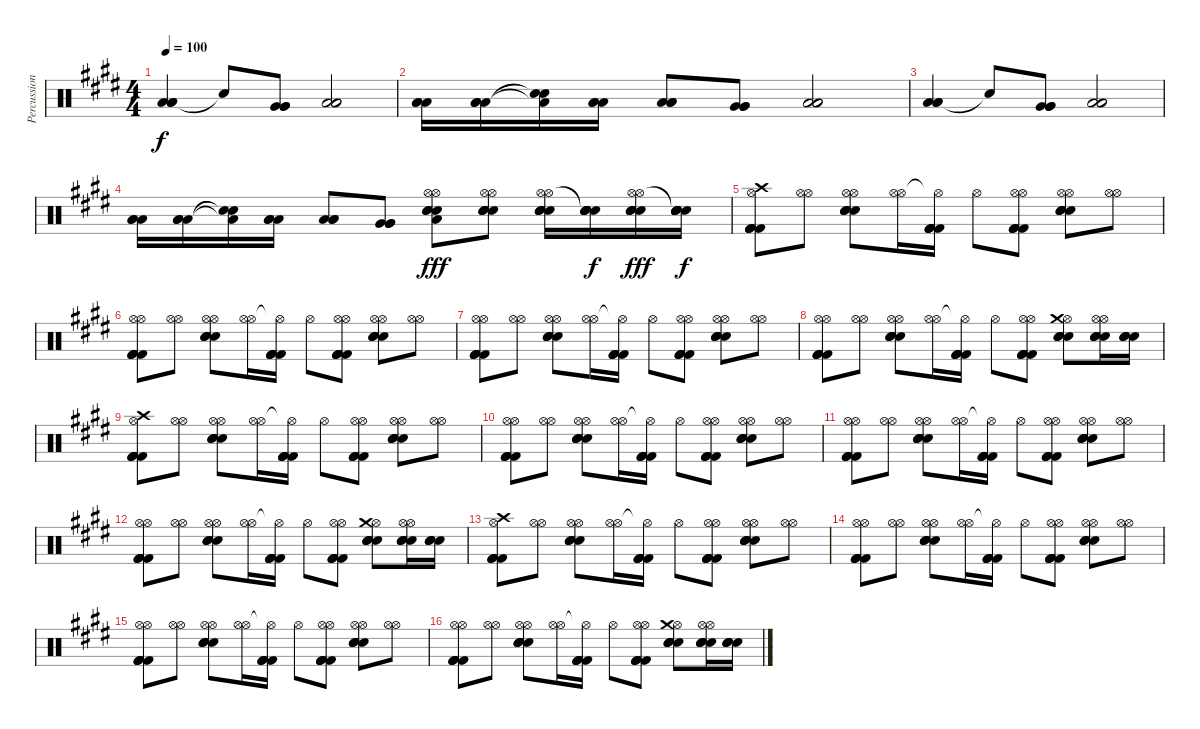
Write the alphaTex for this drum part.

\track ("Percussion" "Percussion") {instrument percussion}
\staff {score}
\articulation defaults
\ts (4 4)
\tempo 100
\clef neutral
\ks e
("Low Floor Tom (hit)" "Low Floor Tom (hit)" "Low Floor Tom (hit)").4{dy f} "Snare (hit)"{t}.8 ("Very Low Tom (hit)" "Very Low Tom (hit)" "Very Low Tom (hit)").8 ("Low Floor Tom (hit)" "Low Floor Tom (hit)" "Low Floor Tom (hit)").2 |
("Low Tom (hit)" "Low Tom (hit)" "Low Tom (hit)").16 ("Low Tom (hit)" "Low Tom (hit)" "Low Tom (hit)").16 ("Low Tom (hit)"{t} "Snare (hit)"{t} "Snare (hit)"{t}).16 ("Low Tom (hit)" "Low Tom (hit)" "Low Tom (hit)").16 ("Low Tom (hit)" "Low Tom (hit)" "Low Tom (hit)").8 ("Very Low Tom (hit)" "Very Low Tom (hit)" "Very Low Tom (hit)").8 ("Low Floor Tom (hit)" "Low Floor Tom (hit)" "Low Floor Tom (hit)").2 |
("Low Floor Tom (hit)" "Low Floor Tom (hit)" "Low Floor Tom (hit)").4 "Snare (hit)"{t}.8 ("Very Low Tom (hit)" "Very Low Tom (hit)" "Very Low Tom (hit)").8 ("Low Floor Tom (hit)" "Low Floor Tom (hit)" "Low Floor Tom (hit)").2 |
("Low Tom (hit)" "Low Tom (hit)" "Low Tom (hit)").16 ("Low Tom (hit)" "Low Tom (hit)" "Low Tom (hit)").16 ("Low Tom (hit)"{t} "Snare (hit)"{t} "Snare (hit)"{t}).16 ("Low Tom (hit)" "Low Tom (hit)" "Low Tom (hit)").16 ("Low Tom (hit)" "Low Tom (hit)" "Low Tom (hit)").8 ("Very Low Tom (hit)" "Very Low Tom (hit)" "Very Low Tom (hit)").8 ("Hi-Hat (open)" "Low Floor Tom (hit)" "Electric Snare (hit)" "Electric Snare (hit)" "Electric Snare (hit)" "Hi-Hat (open)").8{dy fff} ("Hi-Hat (open)" "Electric Snare (hit)" "Electric Snare (hit)" "Electric Snare (hit)" "Electric Snare (hit)" "Hi-Hat (open)").8 ("Hi-Hat (open)" "Electric Snare (hit)" "Electric Snare (hit)" "Electric Snare (hit)" "Electric Snare (hit)" "Hi-Hat (open)").16 ("Snare (hit)"{t} "Electric Snare (hit)" "Electric Snare (hit)" "Electric Snare (hit)" "Electric Snare (hit)" "Snare (hit)"{t}).16{dy f} ("Hi-Hat (open)" "Electric Snare (hit)" "Electric Snare (hit)" "Electric Snare (hit)" "Electric Snare (hit)" "Hi-Hat (open)").16{dy fff} ("Snare (hit)"{t} "Electric Snare (hit)" "Electric Snare (hit)" "Electric Snare (hit)" "Electric Snare (hit)" "Snare (hit)"{t}).16{dy f} |
("Hi-Hat (open)" "Kick (hit) 2" "Kick (hit) 2" "Kick (hit) 2" "Kick (hit) 2" "Crash high (hit)").8 ("Hi-Hat (open)" "Hi-Hat (open)").8 ("Hi-Hat (open)" "Electric Snare (hit)" "Electric Snare (hit)" "Electric Snare (hit)" "Electric Snare (hit)" "Hi-Hat (open)").8 ("Hi-Hat (open)" "Hi-Hat (open)").16 ("Hi-Hat (open)"{t} "Kick (hit) 2" "Kick (hit) 2" "Kick (hit) 2" "Kick (hit) 2").16 "Hi-Hat (open)".8 ("Hi-Hat (open)" "Kick (hit) 2" "Kick (hit) 2" "Kick (hit) 2" "Kick (hit) 2" "Hi-Hat (open)").8 ("Hi-Hat (open)" "Electric Snare (hit)" "Electric Snare (hit)" "Electric Snare (hit)" "Electric Snare (hit)" "Hi-Hat (open)").8 ("Hi-Hat (open)" "Hi-Hat (open)").8 |
("Hi-Hat (open)" "Kick (hit) 2" "Kick (hit) 2" "Kick (hit) 2" "Kick (hit) 2" "Hi-Hat (open)").8 ("Hi-Hat (open)" "Hi-Hat (open)").8 ("Hi-Hat (open)" "Electric Snare (hit)" "Electric Snare (hit)" "Electric Snare (hit)" "Electric Snare (hit)" "Hi-Hat (open)").8 ("Hi-Hat (open)" "Hi-Hat (open)").16 ("Hi-Hat (open)"{t} "Kick (hit) 2" "Kick (hit) 2" "Kick (hit) 2" "Kick (hit) 2").16 "Hi-Hat (open)".8 ("Hi-Hat (open)" "Kick (hit) 2" "Kick (hit) 2" "Kick (hit) 2" "Kick (hit) 2" "Hi-Hat (open)").8 ("Hi-Hat (open)" "Electric Snare (hit)" "Electric Snare (hit)" "Electric Snare (hit)" "Electric Snare (hit)" "Hi-Hat (open)").8 ("Hi-Hat (open)" "Hi-Hat (open)").8 |
("Hi-Hat (open)" "Kick (hit) 2" "Kick (hit) 2" "Kick (hit) 2" "Kick (hit) 2" "Hi-Hat (open)").8 ("Hi-Hat (open)" "Hi-Hat (open)").8 ("Hi-Hat (open)" "Electric Snare (hit)" "Electric Snare (hit)" "Electric Snare (hit)" "Electric Snare (hit)" "Hi-Hat (open)").8 ("Hi-Hat (open)" "Hi-Hat (open)").16 ("Hi-Hat (open)"{t} "Kick (hit) 2" "Kick (hit) 2" "Kick (hit) 2" "Kick (hit) 2").16 "Hi-Hat (open)".8 ("Hi-Hat (open)" "Kick (hit) 2" "Kick (hit) 2" "Kick (hit) 2" "Kick (hit) 2" "Hi-Hat (open)").8 ("Hi-Hat (open)" "Electric Snare (hit)" "Electric Snare (hit)" "Electric Snare (hit)" "Electric Snare (hit)" "Hi-Hat (open)").8 ("Hi-Hat (open)" "Hi-Hat (open)").8 |
("Hi-Hat (open)" "Kick (hit) 2" "Kick (hit) 2" "Kick (hit) 2" "Kick (hit) 2" "Hi-Hat (open)").8 ("Hi-Hat (open)" "Hi-Hat (open)").8 ("Hi-Hat (open)" "Electric Snare (hit)" "Electric Snare (hit)" "Electric Snare (hit)" "Electric Snare (hit)" "Hi-Hat (open)").8 ("Hi-Hat (open)" "Hi-Hat (open)").16 ("Hi-Hat (open)"{t} "Kick (hit) 2" "Kick (hit) 2" "Kick (hit) 2" "Kick (hit) 2").16 "Hi-Hat (open)".8 ("Hi-Hat (open)" "Kick (hit) 2" "Kick (hit) 2" "Kick (hit) 2" "Kick (hit) 2" "Hi-Hat (open)").8 ("Hi-Hat (open)" "Electric Snare (hit)" "Electric Snare (hit)" "Electric Snare (hit)" "Electric Snare (hit)" "Crash medium (hit)").8 ("Hi-Hat (open)" "Electric Snare (hit)" "Electric Snare (hit)" "Electric Snare (hit)" "Electric Snare (hit)" "Hi-Hat (open)").16 ("Electric Snare (hit)" "Electric Snare (hit)" "Electric Snare (hit)" "Electric Snare (hit)").16 |
("Hi-Hat (open)" "Kick (hit) 2" "Kick (hit) 2" "Kick (hit) 2" "Kick (hit) 2" "Crash high (hit)").8 ("Hi-Hat (open)" "Hi-Hat (open)").8 ("Hi-Hat (open)" "Electric Snare (hit)" "Electric Snare (hit)" "Electric Snare (hit)" "Electric Snare (hit)" "Hi-Hat (open)").8 ("Hi-Hat (open)" "Hi-Hat (open)").16 ("Hi-Hat (open)"{t} "Kick (hit) 2" "Kick (hit) 2" "Kick (hit) 2" "Kick (hit) 2").16 "Hi-Hat (open)".8 ("Hi-Hat (open)" "Kick (hit) 2" "Kick (hit) 2" "Kick (hit) 2" "Kick (hit) 2" "Hi-Hat (open)").8 ("Hi-Hat (open)" "Electric Snare (hit)" "Electric Snare (hit)" "Electric Snare (hit)" "Electric Snare (hit)" "Hi-Hat (open)").8 ("Hi-Hat (open)" "Hi-Hat (open)").8 |
("Hi-Hat (open)" "Kick (hit) 2" "Kick (hit) 2" "Kick (hit) 2" "Kick (hit) 2" "Hi-Hat (open)").8 ("Hi-Hat (open)" "Hi-Hat (open)").8 ("Hi-Hat (open)" "Electric Snare (hit)" "Electric Snare (hit)" "Electric Snare (hit)" "Electric Snare (hit)" "Hi-Hat (open)").8 ("Hi-Hat (open)" "Hi-Hat (open)").16 ("Hi-Hat (open)"{t} "Kick (hit) 2" "Kick (hit) 2" "Kick (hit) 2" "Kick (hit) 2").16 "Hi-Hat (open)".8 ("Hi-Hat (open)" "Kick (hit) 2" "Kick (hit) 2" "Kick (hit) 2" "Kick (hit) 2" "Hi-Hat (open)").8 ("Hi-Hat (open)" "Electric Snare (hit)" "Electric Snare (hit)" "Electric Snare (hit)" "Electric Snare (hit)" "Hi-Hat (open)").8 ("Hi-Hat (open)" "Hi-Hat (open)").8 |
("Hi-Hat (open)" "Kick (hit) 2" "Kick (hit) 2" "Kick (hit) 2" "Kick (hit) 2" "Hi-Hat (open)").8 ("Hi-Hat (open)" "Hi-Hat (open)").8 ("Hi-Hat (open)" "Electric Snare (hit)" "Electric Snare (hit)" "Electric Snare (hit)" "Electric Snare (hit)" "Hi-Hat (open)").8 ("Hi-Hat (open)" "Hi-Hat (open)").16 ("Hi-Hat (open)"{t} "Kick (hit) 2" "Kick (hit) 2" "Kick (hit) 2" "Kick (hit) 2").16 "Hi-Hat (open)".8 ("Hi-Hat (open)" "Kick (hit) 2" "Kick (hit) 2" "Kick (hit) 2" "Kick (hit) 2" "Hi-Hat (open)").8 ("Hi-Hat (open)" "Electric Snare (hit)" "Electric Snare (hit)" "Electric Snare (hit)" "Electric Snare (hit)" "Hi-Hat (open)").8 ("Hi-Hat (open)" "Hi-Hat (open)").8 |
("Hi-Hat (open)" "Kick (hit) 2" "Kick (hit) 2" "Kick (hit) 2" "Kick (hit) 2" "Hi-Hat (open)").8 ("Hi-Hat (open)" "Hi-Hat (open)").8 ("Hi-Hat (open)" "Electric Snare (hit)" "Electric Snare (hit)" "Electric Snare (hit)" "Electric Snare (hit)" "Hi-Hat (open)").8 ("Hi-Hat (open)" "Hi-Hat (open)").16 ("Hi-Hat (open)"{t} "Kick (hit) 2" "Kick (hit) 2" "Kick (hit) 2" "Kick (hit) 2").16 "Hi-Hat (open)".8 ("Hi-Hat (open)" "Kick (hit) 2" "Kick (hit) 2" "Kick (hit) 2" "Kick (hit) 2" "Hi-Hat (open)").8 ("Hi-Hat (open)" "Electric Snare (hit)" "Electric Snare (hit)" "Electric Snare (hit)" "Electric Snare (hit)" "Crash medium (hit)").8 ("Hi-Hat (open)" "Electric Snare (hit)" "Electric Snare (hit)" "Electric Snare (hit)" "Electric Snare (hit)" "Hi-Hat (open)").16 ("Electric Snare (hit)" "Electric Snare (hit)" "Electric Snare (hit)" "Electric Snare (hit)").16 |
("Hi-Hat (open)" "Kick (hit) 2" "Kick (hit) 2" "Kick (hit) 2" "Kick (hit) 2" "Crash high (hit)").8 ("Hi-Hat (open)" "Hi-Hat (open)").8 ("Hi-Hat (open)" "Electric Snare (hit)" "Electric Snare (hit)" "Electric Snare (hit)" "Electric Snare (hit)" "Hi-Hat (open)").8 ("Hi-Hat (open)" "Hi-Hat (open)").16 ("Hi-Hat (open)"{t} "Kick (hit) 2" "Kick (hit) 2" "Kick (hit) 2" "Kick (hit) 2").16 "Hi-Hat (open)".8 ("Hi-Hat (open)" "Kick (hit) 2" "Kick (hit) 2" "Kick (hit) 2" "Kick (hit) 2" "Hi-Hat (open)").8 ("Hi-Hat (open)" "Electric Snare (hit)" "Electric Snare (hit)" "Electric Snare (hit)" "Electric Snare (hit)" "Hi-Hat (open)").8 ("Hi-Hat (open)" "Hi-Hat (open)").8 |
("Hi-Hat (open)" "Kick (hit) 2" "Kick (hit) 2" "Kick (hit) 2" "Kick (hit) 2" "Hi-Hat (open)").8 ("Hi-Hat (open)" "Hi-Hat (open)").8 ("Hi-Hat (open)" "Electric Snare (hit)" "Electric Snare (hit)" "Electric Snare (hit)" "Electric Snare (hit)" "Hi-Hat (open)").8 ("Hi-Hat (open)" "Hi-Hat (open)").16 ("Hi-Hat (open)"{t} "Kick (hit) 2" "Kick (hit) 2" "Kick (hit) 2" "Kick (hit) 2").16 "Hi-Hat (open)".8 ("Hi-Hat (open)" "Kick (hit) 2" "Kick (hit) 2" "Kick (hit) 2" "Kick (hit) 2" "Hi-Hat (open)").8 ("Hi-Hat (open)" "Electric Snare (hit)" "Electric Snare (hit)" "Electric Snare (hit)" "Electric Snare (hit)" "Hi-Hat (open)").8 ("Hi-Hat (open)" "Hi-Hat (open)").8 |
("Hi-Hat (open)" "Kick (hit) 2" "Kick (hit) 2" "Kick (hit) 2" "Kick (hit) 2" "Hi-Hat (open)").8 ("Hi-Hat (open)" "Hi-Hat (open)").8 ("Hi-Hat (open)" "Electric Snare (hit)" "Electric Snare (hit)" "Electric Snare (hit)" "Electric Snare (hit)" "Hi-Hat (open)").8 ("Hi-Hat (open)" "Hi-Hat (open)").16 ("Hi-Hat (open)"{t} "Kick (hit) 2" "Kick (hit) 2" "Kick (hit) 2" "Kick (hit) 2").16 "Hi-Hat (open)".8 ("Hi-Hat (open)" "Kick (hit) 2" "Kick (hit) 2" "Kick (hit) 2" "Kick (hit) 2" "Hi-Hat (open)").8 ("Hi-Hat (open)" "Electric Snare (hit)" "Electric Snare (hit)" "Electric Snare (hit)" "Electric Snare (hit)" "Hi-Hat (open)").8 ("Hi-Hat (open)" "Hi-Hat (open)").8 |
("Hi-Hat (open)" "Kick (hit) 2" "Kick (hit) 2" "Kick (hit) 2" "Kick (hit) 2" "Hi-Hat (open)").8 ("Hi-Hat (open)" "Hi-Hat (open)").8 ("Hi-Hat (open)" "Electric Snare (hit)" "Electric Snare (hit)" "Electric Snare (hit)" "Electric Snare (hit)" "Hi-Hat (open)").8 ("Hi-Hat (open)" "Hi-Hat (open)").16 ("Hi-Hat (open)"{t} "Kick (hit) 2" "Kick (hit) 2" "Kick (hit) 2" "Kick (hit) 2").16 "Hi-Hat (open)".8 ("Hi-Hat (open)" "Kick (hit) 2" "Kick (hit) 2" "Kick (hit) 2" "Kick (hit) 2" "Hi-Hat (open)").8 ("Hi-Hat (open)" "Electric Snare (hit)" "Electric Snare (hit)" "Electric Snare (hit)" "Electric Snare (hit)" "Crash medium (hit)").8 ("Hi-Hat (open)" "Electric Snare (hit)" "Electric Snare (hit)" "Electric Snare (hit)" "Electric Snare (hit)" "Hi-Hat (open)").16 ("Electric Snare (hit)" "Electric Snare (hit)" "Electric Snare (hit)" "Electric Snare (hit)").16
